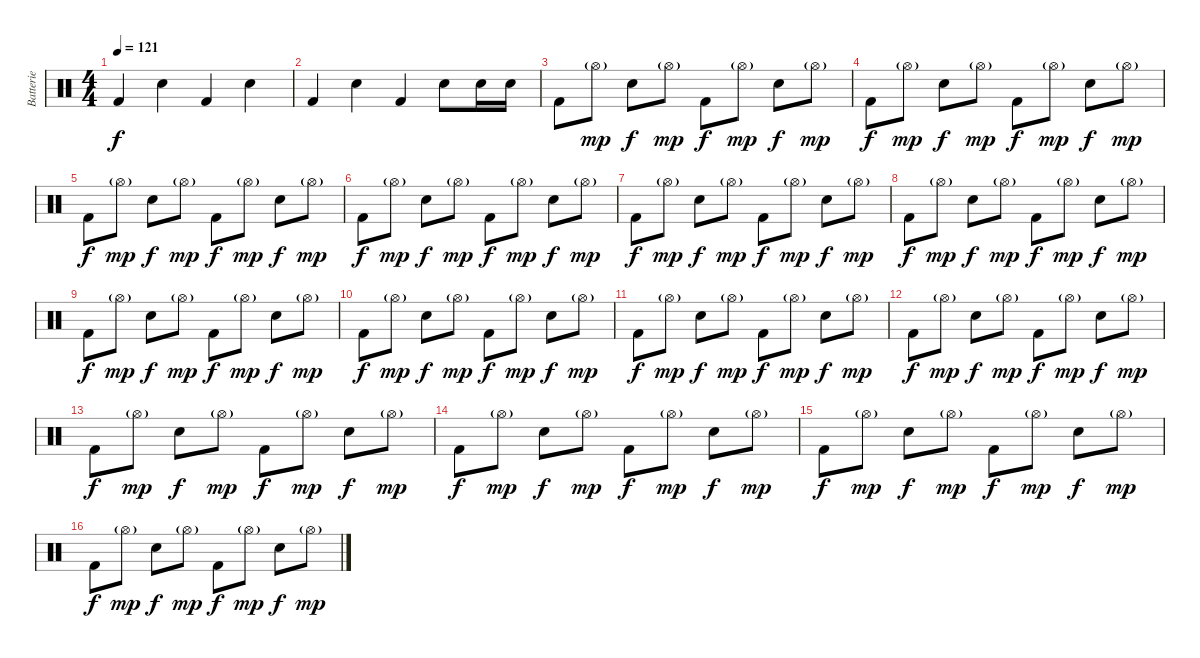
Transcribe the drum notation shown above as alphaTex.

\track ("Batterie" "Batterie") {instrument percussion}
\staff {score}
\articulation defaults
\ts (4 4)
\tempo 121
\clef neutral
\ks c "Kick (hit) 2".4{dy f} "Snare (hit) 2".4 "Kick (hit) 2".4 "Snare (hit) 2".4
|
"Kick (hit) 2".4 "Snare (hit) 2".4 "Kick (hit) 2".4 "Snare (hit) 2".8 "Electric Snare (hit)".16 "Electric Snare (hit)".16 |
"Kick (hit) 2".8 "Hi-Hat (open)"{g}.8{dy mp} "Electric Snare (hit)".8{dy f} "Hi-Hat (open)"{g}.8{dy mp} "Kick (hit) 2".8{dy f} "Hi-Hat (open)"{g}.8{dy mp} "Electric Snare (hit)".8{dy f} "Hi-Hat (open)"{g}.8{dy mp} |
"Kick (hit) 2".8{dy f} "Hi-Hat (open)"{g}.8{dy mp} "Electric Snare (hit)".8{dy f} "Hi-Hat (open)"{g}.8{dy mp} "Kick (hit) 2".8{dy f} "Hi-Hat (open)"{g}.8{dy mp} "Electric Snare (hit)".8{dy f} "Hi-Hat (open)"{g}.8{dy mp} |
"Kick (hit) 2".8{dy f} "Hi-Hat (open)"{g}.8{dy mp} "Electric Snare (hit)".8{dy f} "Hi-Hat (open)"{g}.8{dy mp} "Kick (hit) 2".8{dy f} "Hi-Hat (open)"{g}.8{dy mp} "Electric Snare (hit)".8{dy f} "Hi-Hat (open)"{g}.8{dy mp} |
"Kick (hit) 2".8{dy f} "Hi-Hat (open)"{g}.8{dy mp} "Electric Snare (hit)".8{dy f} "Hi-Hat (open)"{g}.8{dy mp} "Kick (hit) 2".8{dy f} "Hi-Hat (open)"{g}.8{dy mp} "Electric Snare (hit)".8{dy f} "Hi-Hat (open)"{g}.8{dy mp} |
"Kick (hit) 2".8{dy f} "Hi-Hat (open)"{g}.8{dy mp} "Electric Snare (hit)".8{dy f} "Hi-Hat (open)"{g}.8{dy mp} "Kick (hit) 2".8{dy f} "Hi-Hat (open)"{g}.8{dy mp} "Electric Snare (hit)".8{dy f} "Hi-Hat (open)"{g}.8{dy mp} |
"Kick (hit) 2".8{dy f} "Hi-Hat (open)"{g}.8{dy mp} "Electric Snare (hit)".8{dy f} "Hi-Hat (open)"{g}.8{dy mp} "Kick (hit) 2".8{dy f} "Hi-Hat (open)"{g}.8{dy mp} "Electric Snare (hit)".8{dy f} "Hi-Hat (open)"{g}.8{dy mp} |
"Kick (hit) 2".8{dy f} "Hi-Hat (open)"{g}.8{dy mp} "Electric Snare (hit)".8{dy f} "Hi-Hat (open)"{g}.8{dy mp} "Kick (hit) 2".8{dy f} "Hi-Hat (open)"{g}.8{dy mp} "Electric Snare (hit)".8{dy f} "Hi-Hat (open)"{g}.8{dy mp} |
"Kick (hit) 2".8{dy f} "Hi-Hat (open)"{g}.8{dy mp} "Electric Snare (hit)".8{dy f} "Hi-Hat (open)"{g}.8{dy mp} "Kick (hit) 2".8{dy f} "Hi-Hat (open)"{g}.8{dy mp} "Electric Snare (hit)".8{dy f} "Hi-Hat (open)"{g}.8{dy mp} |
"Kick (hit) 2".8{dy f} "Hi-Hat (open)"{g}.8{dy mp} "Electric Snare (hit)".8{dy f} "Hi-Hat (open)"{g}.8{dy mp} "Kick (hit) 2".8{dy f} "Hi-Hat (open)"{g}.8{dy mp} "Electric Snare (hit)".8{dy f} "Hi-Hat (open)"{g}.8{dy mp} |
"Kick (hit) 2".8{dy f} "Hi-Hat (open)"{g}.8{dy mp} "Electric Snare (hit)".8{dy f} "Hi-Hat (open)"{g}.8{dy mp} "Kick (hit) 2".8{dy f} "Hi-Hat (open)"{g}.8{dy mp} "Electric Snare (hit)".8{dy f} "Hi-Hat (open)"{g}.8{dy mp} |
"Kick (hit) 2".8{dy f} "Hi-Hat (open)"{g}.8{dy mp} "Electric Snare (hit)".8{dy f} "Hi-Hat (open)"{g}.8{dy mp} "Kick (hit) 2".8{dy f} "Hi-Hat (open)"{g}.8{dy mp} "Electric Snare (hit)".8{dy f} "Hi-Hat (open)"{g}.8{dy mp} |
"Kick (hit) 2".8{dy f} "Hi-Hat (open)"{g}.8{dy mp} "Electric Snare (hit)".8{dy f} "Hi-Hat (open)"{g}.8{dy mp} "Kick (hit) 2".8{dy f} "Hi-Hat (open)"{g}.8{dy mp} "Electric Snare (hit)".8{dy f} "Hi-Hat (open)"{g}.8{dy mp} |
"Kick (hit) 2".8{dy f} "Hi-Hat (open)"{g}.8{dy mp} "Electric Snare (hit)".8{dy f} "Hi-Hat (open)"{g}.8{dy mp} "Kick (hit) 2".8{dy f} "Hi-Hat (open)"{g}.8{dy mp} "Electric Snare (hit)".8{dy f} "Hi-Hat (open)"{g}.8{dy mp} |
"Kick (hit) 2".8{dy f} "Hi-Hat (open)"{g}.8{dy mp} "Electric Snare (hit)".8{dy f} "Hi-Hat (open)"{g}.8{dy mp} "Kick (hit) 2".8{dy f} "Hi-Hat (open)"{g}.8{dy mp} "Electric Snare (hit)".8{dy f} "Hi-Hat (open)"{g}.8{dy mp}
